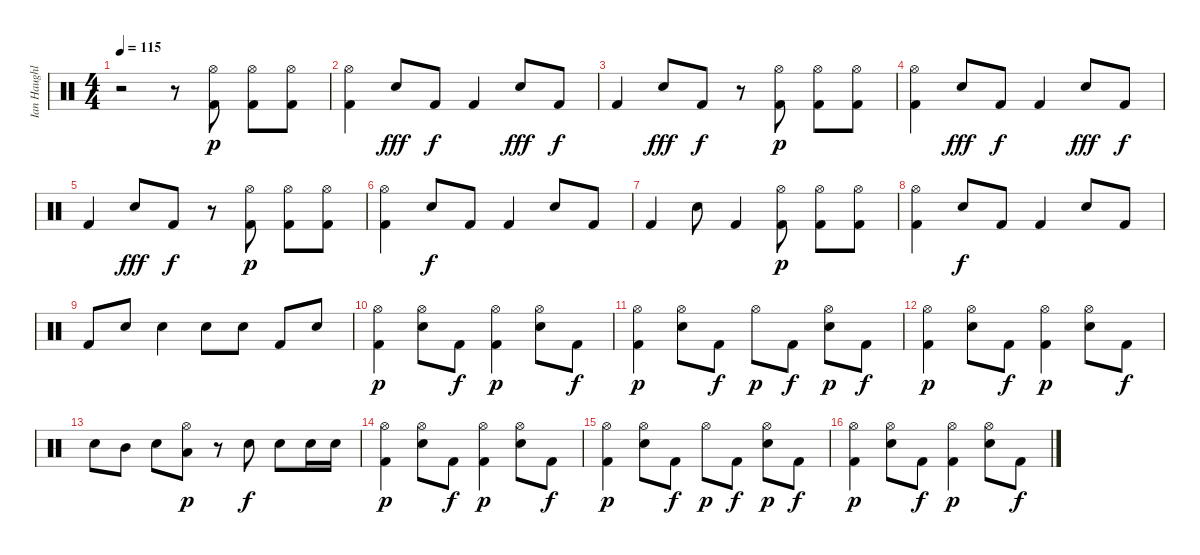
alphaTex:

\track ("Ian Haughland" "Ian Haughl") {instrument percussion}
\staff {score}
\articulation defaults
\ts (4 4)
\tempo 115
\clef neutral
\ks c
r.2{dy p} r.8 ("Kick (hit) 2" "Hi-Hat (open)").8 ("Kick (hit) 2" "Hi-Hat (open)").8 ("Kick (hit) 2" "Hi-Hat (open)").8 |
("Kick (hit) 2" "Hi-Hat (open)").4 "Snare (hit) 2".8{dy fff} "Kick (hit) 2".8{dy f} "Kick (hit) 2".4 "Snare (hit) 2".8{dy fff} "Kick (hit) 2".8{dy f} |
"Kick (hit) 2".4 "Snare (hit) 2".8{dy fff} "Kick (hit) 2".8{dy f} r.8 ("Kick (hit) 2" "Hi-Hat (open)").8{dy p} ("Kick (hit) 2" "Hi-Hat (open)").8 ("Kick (hit) 2" "Hi-Hat (open)").8 |
("Kick (hit) 2" "Hi-Hat (open)").4 "Snare (hit) 2".8{dy fff} "Kick (hit) 2".8{dy f} "Kick (hit) 2".4 "Snare (hit) 2".8{dy fff} "Kick (hit) 2".8{dy f} |
"Kick (hit) 2".4 "Snare (hit) 2".8{dy fff} "Kick (hit) 2".8{dy f} r.8 ("Kick (hit) 2" "Hi-Hat (open)").8{dy p} ("Kick (hit) 2" "Hi-Hat (open)").8 ("Kick (hit) 2" "Hi-Hat (open)").8 |
("Kick (hit) 2" "Hi-Hat (open)").4 "Snare (hit) 2".8{dy f} "Kick (hit) 2".8 "Kick (hit) 2".4 "Snare (hit) 2".8 "Kick (hit) 2".8 |
"Kick (hit) 2".4 "Snare (hit) 2".8 "Kick (hit) 2".4 ("Kick (hit) 2" "Hi-Hat (open)").8{dy p} ("Kick (hit) 2" "Hi-Hat (open)").8 ("Kick (hit) 2" "Hi-Hat (open)").8 |
("Kick (hit) 2" "Hi-Hat (open)").4 "Snare (hit) 2".8{dy f} "Kick (hit) 2".8 "Kick (hit) 2".4 "Snare (hit) 2".8 "Kick (hit) 2".8 |
"Kick (hit) 2".8 "Snare (hit) 2".8 "Snare (hit) 2".4 "Snare (hit) 2".8 "Snare (hit) 2".8 "Kick (hit) 2".8 "Snare (hit) 2".8 |
("Kick (hit) 2" "Hi-Hat (open)").4{dy p} ("Snare (hit) 2" "Hi-Hat (open)").8 "Kick (hit) 2".8{dy f} ("Kick (hit) 2" "Hi-Hat (open)").4{dy p} ("Snare (hit) 2" "Hi-Hat (open)").8 "Kick (hit) 2".8{dy f} |
("Kick (hit) 2" "Hi-Hat (open)").4{dy p} ("Snare (hit) 2" "Hi-Hat (open)").8 "Kick (hit) 2".8{dy f} "Hi-Hat (open)".8{dy p} "Kick (hit) 2".8{dy f} ("Snare (hit) 2" "Hi-Hat (open)").8{dy p} "Kick (hit) 2".8{dy f} |
("Kick (hit) 2" "Hi-Hat (open)").4{dy p} ("Snare (hit) 2" "Hi-Hat (open)").8 "Kick (hit) 2".8{dy f} ("Kick (hit) 2" "Hi-Hat (open)").4{dy p} ("Snare (hit) 2" "Hi-Hat (open)").8 "Kick (hit) 2".8{dy f} |
"Snare (hit) 2".8 "Mid Tom (hit)".8 "Snare (hit) 2".8 ("Low Floor Tom (hit)" "Hi-Hat (open)").8{dy p} r.8 "Snare (hit) 2".8{dy f} "Snare (hit) 2".8 "Snare (hit) 2".16 "Snare (hit) 2".16 |
("Kick (hit) 2" "Hi-Hat (open)").4{dy p} ("Snare (hit) 2" "Hi-Hat (open)").8 "Kick (hit) 2".8{dy f} ("Kick (hit) 2" "Hi-Hat (open)").4{dy p} ("Snare (hit) 2" "Hi-Hat (open)").8 "Kick (hit) 2".8{dy f} |
("Kick (hit) 2" "Hi-Hat (open)").4{dy p} ("Snare (hit) 2" "Hi-Hat (open)").8 "Kick (hit) 2".8{dy f} "Hi-Hat (open)".8{dy p} "Kick (hit) 2".8{dy f} ("Snare (hit) 2" "Hi-Hat (open)").8{dy p} "Kick (hit) 2".8{dy f} |
("Kick (hit) 2" "Hi-Hat (open)").4{dy p} ("Snare (hit) 2" "Hi-Hat (open)").8 "Kick (hit) 2".8{dy f} ("Kick (hit) 2" "Hi-Hat (open)").4{dy p} ("Snare (hit) 2" "Hi-Hat (open)").8 "Kick (hit) 2".8{dy f}
